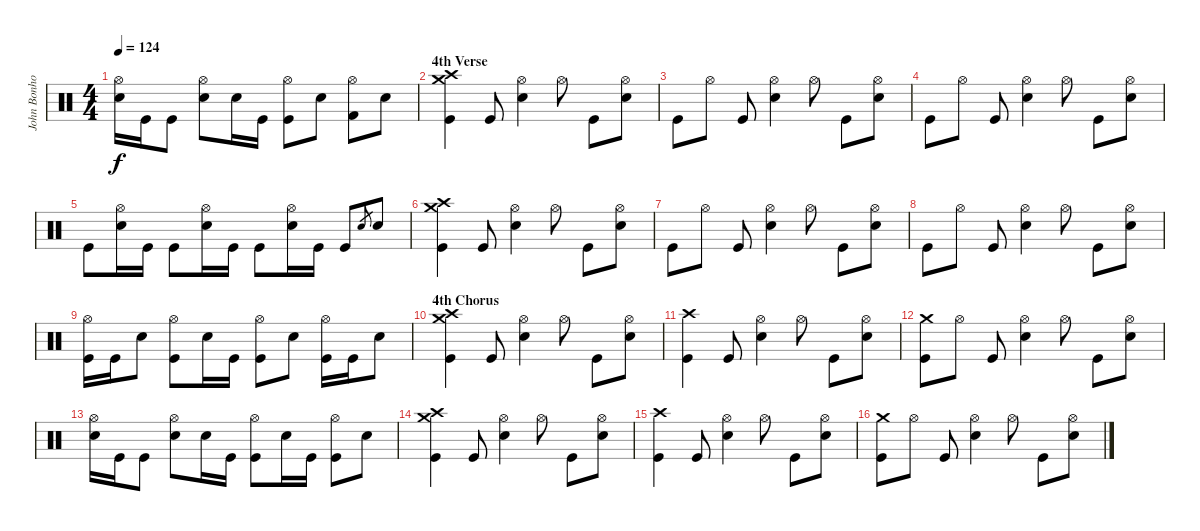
\track ("John Bonhom" "John Bonho") {instrument percussion}
\staff {score}
\articulation defaults
\ts (4 4)
\tempo 124
\clef neutral
\ks c
("Hi-Hat (open)" "Electric Snare (hit)").16{dy f} "Kick (hit)".16 "Kick (hit)".8 ("Hi-Hat (open)" "Electric Snare (hit)").8 "Electric Snare (hit)".16 "Kick (hit)".16 ("Hi-Hat (open)" "Kick (hit)").8 "Electric Snare (hit)".8 ("Hi-Hat (open)" "Kick (hit) 2").8 "Electric Snare (hit)".8 |
\section ("" "4th Verse")
("Crash high (hit)" "Crash medium (hit)" "Kick (hit)").4 "Kick (hit)".8 ("Hi-Hat (open)" "Electric Snare (hit)").4 "Hi-Hat (open)".8 "Kick (hit)".8 ("Hi-Hat (open)" "Electric Snare (hit)").8 |
"Kick (hit)".8 "Hi-Hat (open)".8 "Kick (hit)".8 ("Hi-Hat (open)" "Electric Snare (hit)").4 "Hi-Hat (open)".8 "Kick (hit)".8 ("Hi-Hat (open)" "Electric Snare (hit)").8 |
"Kick (hit)".8 "Hi-Hat (open)".8 "Kick (hit)".8 ("Hi-Hat (open)" "Electric Snare (hit)").4 "Hi-Hat (open)".8 "Kick (hit)".8 ("Hi-Hat (open)" "Electric Snare (hit)").8 |
"Kick (hit)".8 ("Hi-Hat (open)" "Electric Snare (hit)").16 "Kick (hit)".16 "Kick (hit)".8 ("Hi-Hat (open)" "Electric Snare (hit)").16 "Kick (hit)".16 "Kick (hit)".8 ("Hi-Hat (open)" "Electric Snare (hit)").16 "Kick (hit)".16 "Kick (hit)".8 "Electric Snare (hit)".8{gr} "Electric Snare (hit)".8 |
("Crash high (hit)" "Crash medium (hit)" "Kick (hit)").4 "Kick (hit)".8 ("Hi-Hat (open)" "Electric Snare (hit)").4 "Hi-Hat (open)".8 "Kick (hit)".8 ("Hi-Hat (open)" "Electric Snare (hit)").8 |
"Kick (hit)".8 "Hi-Hat (open)".8 "Kick (hit)".8 ("Hi-Hat (open)" "Electric Snare (hit)").4 "Hi-Hat (open)".8 "Kick (hit)".8 ("Hi-Hat (open)" "Electric Snare (hit)").8 |
"Kick (hit)".8 "Hi-Hat (open)".8 "Kick (hit)".8 ("Hi-Hat (open)" "Electric Snare (hit)").4 "Hi-Hat (open)".8 "Kick (hit)".8 ("Hi-Hat (open)" "Electric Snare (hit)").8 |
("Hi-Hat (open)" "Kick (hit)").16 "Kick (hit)".16 "Electric Snare (hit)".8 ("Hi-Hat (open)" "Kick (hit)").8 "Electric Snare (hit)".16 "Kick (hit)".16 ("Hi-Hat (open)" "Kick (hit)").8 "Electric Snare (hit)".8 ("Hi-Hat (open)" "Kick (hit)").16 "Kick (hit)".16 "Electric Snare (hit)".8 |
\section ("" "4th Chorus")
("Crash high (hit)" "Crash medium (hit)" "Kick (hit)").4 "Kick (hit)".8 ("Hi-Hat (open)" "Electric Snare (hit)").4 "Hi-Hat (open)".8 "Kick (hit)".8 ("Hi-Hat (open)" "Electric Snare (hit)").8 |
("Crash high (hit)" "Kick (hit)").4 "Kick (hit)".8 ("Hi-Hat (open)" "Electric Snare (hit)").4 "Hi-Hat (open)".8 "Kick (hit)".8 ("Hi-Hat (open)" "Electric Snare (hit)").8 |
("Crash medium (hit)" "Kick (hit)").8 "Hi-Hat (open)".8 "Kick (hit)".8 ("Hi-Hat (open)" "Electric Snare (hit)").4 "Hi-Hat (open)".8 "Kick (hit)".8 ("Hi-Hat (open)" "Electric Snare (hit)").8 |
("Hi-Hat (open)" "Electric Snare (hit)").16 "Kick (hit)".16 "Kick (hit)".8 ("Hi-Hat (open)" "Electric Snare (hit)").8 "Electric Snare (hit)".16 "Kick (hit)".16 ("Hi-Hat (open)" "Kick (hit)").8 "Electric Snare (hit)".16 "Kick (hit)".16 ("Hi-Hat (open)" "Kick (hit)").8 "Electric Snare (hit)".8 |
("Crash high (hit)" "Crash medium (hit)" "Kick (hit)").4 "Kick (hit)".8 ("Hi-Hat (open)" "Electric Snare (hit)").4 "Hi-Hat (open)".8 "Kick (hit)".8 ("Hi-Hat (open)" "Electric Snare (hit)").8 |
("Crash high (hit)" "Kick (hit)").4 "Kick (hit)".8 ("Hi-Hat (open)" "Electric Snare (hit)").4 "Hi-Hat (open)".8 "Kick (hit)".8 ("Hi-Hat (open)" "Electric Snare (hit)").8 |
("Crash medium (hit)" "Kick (hit)").8 "Hi-Hat (open)".8 "Kick (hit)".8 ("Hi-Hat (open)" "Electric Snare (hit)").4 "Hi-Hat (open)".8 "Kick (hit)".8 ("Hi-Hat (open)" "Electric Snare (hit)").8
